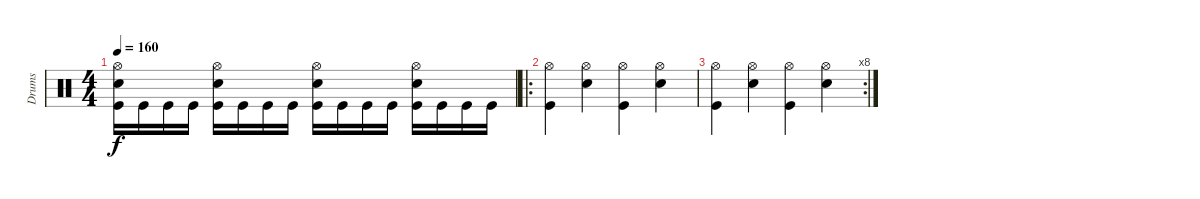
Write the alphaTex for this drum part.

\track ("Drums" "Drums") {instrument percussion}
\staff {score}
\articulation defaults
\ts (4 4)
\tempo 160
\clef neutral
\ks c
("Hi-Hat (open)" "Snare (hit) 2" "Kick (hit)").16{dy f} "Kick (hit)".16 "Kick (hit)".16 "Kick (hit)".16 ("Hi-Hat (open)" "Snare (hit) 2" "Kick (hit)").16 "Kick (hit)".16 "Kick (hit)".16 "Kick (hit)".16 ("Hi-Hat (open)" "Snare (hit) 2" "Kick (hit)").16 "Kick (hit)".16 "Kick (hit)".16 "Kick (hit)".16 ("Hi-Hat (open)" "Snare (hit) 2" "Kick (hit)").16 "Kick (hit)".16 "Kick (hit)".16 "Kick (hit)".16 |
\ro
("Hi-Hat (open)" "Kick (hit)").4 ("Hi-Hat (open)" "Snare (hit) 2").4 ("Hi-Hat (open)" "Kick (hit)").4 ("Hi-Hat (open)" "Snare (hit) 2").4 |
\rc 8
("Hi-Hat (open)" "Kick (hit)").4 ("Hi-Hat (open)" "Snare (hit) 2").4 ("Hi-Hat (open)" "Kick (hit)").4 ("Hi-Hat (open)" "Snare (hit) 2").4
